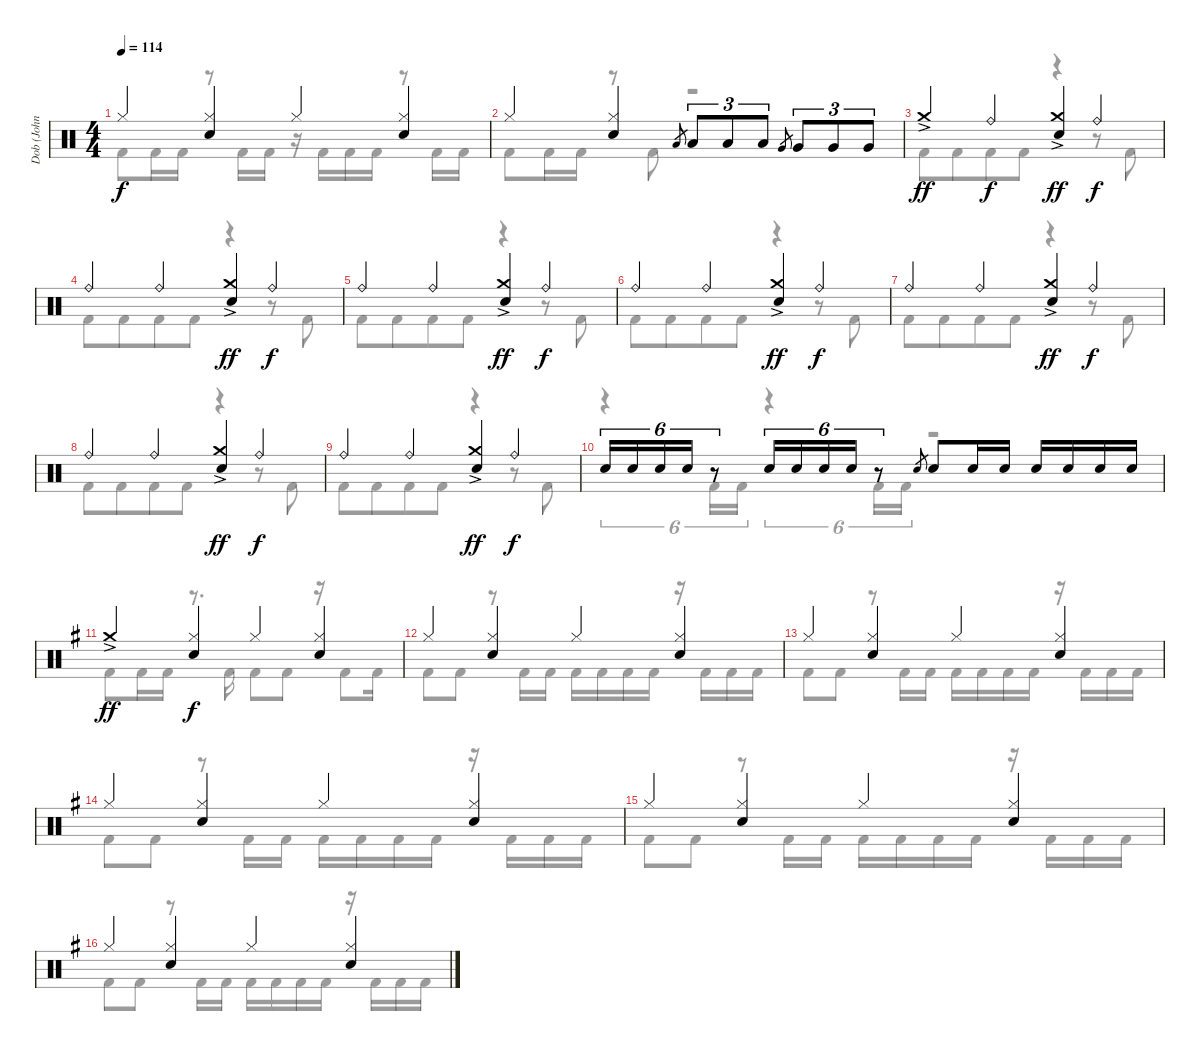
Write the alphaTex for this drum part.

\track ("Dob (John Macaluso)" "Dob (John ") {instrument percussion}
\staff {score}
\articulation defaults
\voice
\ts (4 4)
\tempo 114
\clef neutral
\ks c "Hi-Hat (closed)".4{dy f}
("Hi-Hat (closed)" "Electric Snare (hit)").4 "Hi-Hat (closed)".4 ("Hi-Hat (closed)" "Electric Snare (hit)").4 |
"Hi-Hat (closed)".4 ("Hi-Hat (closed)" "Electric Snare (hit)").4 "Low Tom (hit)".8{gr} "Low Tom (hit)".8{tu (3 2)} "Low Tom (hit)".8{tu (3 2)} "Low Tom (hit)".8{tu (3 2)} "Very Low Tom (hit)".8{gr} "Very Low Tom (hit)".8{tu (3 2)} "Very Low Tom (hit)".8{tu (3 2)} "Very Low Tom (hit)".8{tu (3 2)} |
"Crash medium (hit)"{ac}.4{dy ff} "Ride (bell)".4{dy f} ("Crash medium (hit)"{ac} "Electric Snare (hit)").4{dy ff} "Ride (bell)".4{dy f} |
"Ride (bell)".4 "Ride (bell)".4 ("Crash medium (hit)"{ac} "Electric Snare (hit)").4{dy ff} "Ride (bell)".4{dy f} |
"Ride (bell)".4 "Ride (bell)".4 ("Crash medium (hit)"{ac} "Electric Snare (hit)").4{dy ff} "Ride (bell)".4{dy f} |
"Ride (bell)".4 "Ride (bell)".4 ("Crash medium (hit)"{ac} "Electric Snare (hit)").4{dy ff} "Ride (bell)".4{dy f} |
"Ride (bell)".4 "Ride (bell)".4 ("Crash medium (hit)"{ac} "Electric Snare (hit)").4{dy ff} "Ride (bell)".4{dy f} |
"Ride (bell)".4 "Ride (bell)".4 ("Crash medium (hit)"{ac} "Electric Snare (hit)").4{dy ff} "Ride (bell)".4{dy f} |
"Ride (bell)".4 "Ride (bell)".4 ("Crash medium (hit)"{ac} "Electric Snare (hit)").4{dy ff} "Ride (bell)".4{dy f} |
"Electric Snare (hit)".16{tu (6 4)} "Electric Snare (hit)".16{tu (6 4)} "Electric Snare (hit)".16{tu (6 4)} "Electric Snare (hit)".16{tu (6 4)} r.8{tu (6 4)} "Electric Snare (hit)".16{tu (6 4)} "Electric Snare (hit)".16{tu (6 4)} "Electric Snare (hit)".16{tu (6 4)} "Electric Snare (hit)".16{tu (6 4)} r.8{tu (6 4)} "Electric Snare (hit)".8{gr} "Electric Snare (hit)".8 "Electric Snare (hit)".16 "Electric Snare (hit)".16 "Electric Snare (hit)".16 "Electric Snare (hit)".16 "Electric Snare (hit)".16 "Electric Snare (hit)".16 |
\ks g "Crash medium (hit)"{ac}.4{dy ff}
("Hi-Hat (closed)" "Electric Snare (hit)").4{dy f} "Hi-Hat (closed)".4 ("Hi-Hat (closed)" "Electric Snare (hit)").4 |
"Hi-Hat (closed)".4 ("Hi-Hat (closed)" "Electric Snare (hit)").4 "Hi-Hat (closed)".4 ("Hi-Hat (closed)" "Electric Snare (hit)").4 |
"Hi-Hat (closed)".4 ("Hi-Hat (closed)" "Electric Snare (hit)").4 "Hi-Hat (closed)".4 ("Hi-Hat (closed)" "Electric Snare (hit)").4 |
"Hi-Hat (closed)".4 ("Hi-Hat (closed)" "Electric Snare (hit)").4 "Hi-Hat (closed)".4 ("Hi-Hat (closed)" "Electric Snare (hit)").4 |
"Hi-Hat (closed)".4 ("Hi-Hat (closed)" "Electric Snare (hit)").4 "Hi-Hat (closed)".4 ("Hi-Hat (closed)" "Electric Snare (hit)").4 |
"Hi-Hat (closed)".4 ("Hi-Hat (closed)" "Electric Snare (hit)").4 "Hi-Hat (closed)".4 ("Hi-Hat (closed)" "Electric Snare (hit)").4
\voice
\clef neutral
\ottava regular
\simile none
\ks c "Kick (hit) 2".8{dy f} "Kick (hit) 2".16 "Kick (hit) 2".16
r.8 "Kick (hit) 2".16 "Kick (hit) 2".16 r.16 "Kick (hit) 2".16 "Kick (hit) 2".16 "Kick (hit) 2".16 r.8 "Kick (hit) 2".16 "Kick (hit) 2".16 |
"Kick (hit) 2".8 "Kick (hit) 2".16 "Kick (hit) 2".16 r.8 "Kick (hit) 2".8 r.2 |
"Kick (hit) 2".8 "Kick (hit) 2".8{beam merge} "Kick (hit) 2".8 "Kick (hit) 2".8 r.4 r.8 "Kick (hit) 2".8 |
"Kick (hit) 2".8 "Kick (hit) 2".8{beam merge} "Kick (hit) 2".8 "Kick (hit) 2".8 r.4 r.8 "Kick (hit) 2".8 |
"Kick (hit) 2".8 "Kick (hit) 2".8{beam merge} "Kick (hit) 2".8 "Kick (hit) 2".8 r.4 r.8 "Kick (hit) 2".8 |
"Kick (hit) 2".8 "Kick (hit) 2".8{beam merge} "Kick (hit) 2".8 "Kick (hit) 2".8 r.4 r.8 "Kick (hit) 2".8 |
"Kick (hit) 2".8 "Kick (hit) 2".8{beam merge} "Kick (hit) 2".8 "Kick (hit) 2".8 r.4 r.8 "Kick (hit) 2".8 |
"Kick (hit) 2".8 "Kick (hit) 2".8{beam merge} "Kick (hit) 2".8 "Kick (hit) 2".8 r.4 r.8 "Kick (hit) 2".8 |
"Kick (hit) 2".8 "Kick (hit) 2".8{beam merge} "Kick (hit) 2".8 "Kick (hit) 2".8 r.4 r.8 "Kick (hit) 2".8 |
r.4{tu (6 4)} "Kick (hit) 2".16{tu (6 4)} "Kick (hit) 2".16{tu (6 4)} r.4{tu (6 4)} "Kick (hit) 2".16{tu (6 4)} "Kick (hit) 2".16{tu (6 4)} r.2 |
\ks g "Kick (hit) 2".8 "Kick (hit) 2".16 "Kick (hit) 2".16
r.8{d} "Kick (hit) 2".16 "Kick (hit) 2".8 "Kick (hit) 2".8 r.16 "Kick (hit) 2".8 "Kick (hit) 2".16 |
"Kick (hit) 2".8 "Kick (hit) 2".8 r.8 "Kick (hit) 2".16 "Kick (hit) 2".16 "Kick (hit) 2".16 "Kick (hit) 2".16 "Kick (hit) 2".16 "Kick (hit) 2".16 r.16 "Kick (hit) 2".16 "Kick (hit) 2".16 "Kick (hit) 2".16 |
"Kick (hit) 2".8 "Kick (hit) 2".8 r.8 "Kick (hit) 2".16 "Kick (hit) 2".16 "Kick (hit) 2".16 "Kick (hit) 2".16 "Kick (hit) 2".16 "Kick (hit) 2".16 r.16 "Kick (hit) 2".16 "Kick (hit) 2".16 "Kick (hit) 2".16 |
"Kick (hit) 2".8 "Kick (hit) 2".8 r.8 "Kick (hit) 2".16 "Kick (hit) 2".16 "Kick (hit) 2".16 "Kick (hit) 2".16 "Kick (hit) 2".16 "Kick (hit) 2".16 r.16 "Kick (hit) 2".16 "Kick (hit) 2".16 "Kick (hit) 2".16 |
"Kick (hit) 2".8 "Kick (hit) 2".8 r.8 "Kick (hit) 2".16 "Kick (hit) 2".16 "Kick (hit) 2".16 "Kick (hit) 2".16 "Kick (hit) 2".16 "Kick (hit) 2".16 r.16 "Kick (hit) 2".16 "Kick (hit) 2".16 "Kick (hit) 2".16 |
"Kick (hit) 2".8 "Kick (hit) 2".8 r.8 "Kick (hit) 2".16 "Kick (hit) 2".16 "Kick (hit) 2".16 "Kick (hit) 2".16 "Kick (hit) 2".16 "Kick (hit) 2".16 r.16 "Kick (hit) 2".16 "Kick (hit) 2".16 "Kick (hit) 2".16
